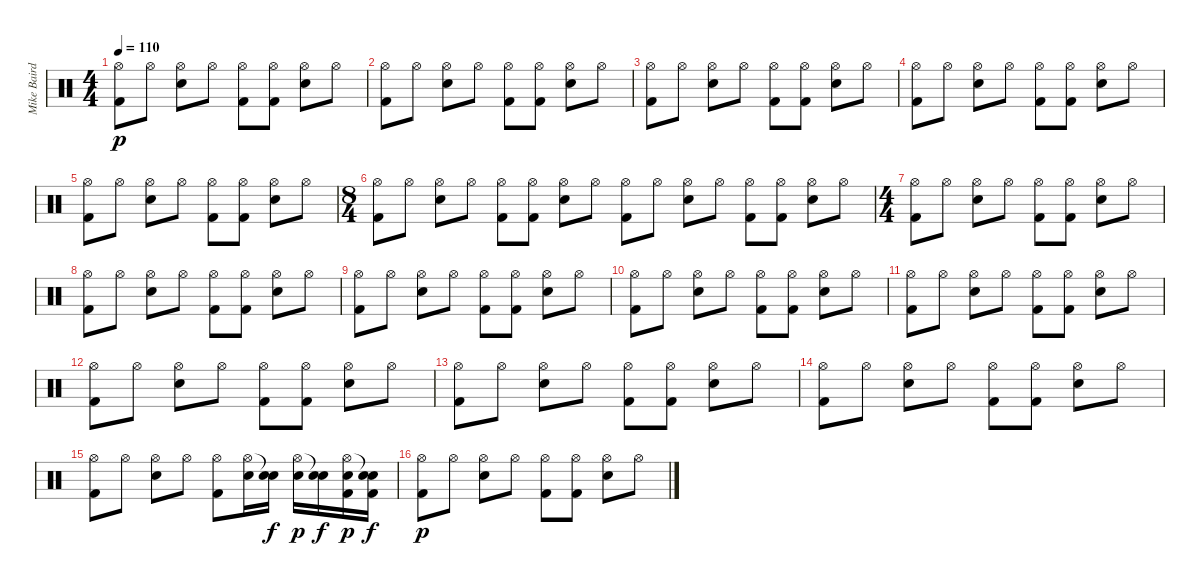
\track ("Mike Baird [drums]" "Mike Baird") {instrument percussion}
\staff {score}
\articulation defaults
\ts (4 4)
\tempo 110
\clef neutral
\ks c
("Hi-Hat (open)" "Kick (hit) 2").8{dy p} "Hi-Hat (open)".8 ("Hi-Hat (open)" "Electric Snare (hit)").8 "Hi-Hat (open)".8 ("Hi-Hat (open)" "Kick (hit) 2").8 ("Hi-Hat (open)" "Kick (hit) 2").8 ("Hi-Hat (open)" "Electric Snare (hit)").8 "Hi-Hat (open)".8 |
("Hi-Hat (open)" "Kick (hit) 2").8 "Hi-Hat (open)".8 ("Hi-Hat (open)" "Electric Snare (hit)").8 "Hi-Hat (open)".8 ("Hi-Hat (open)" "Kick (hit) 2").8 ("Hi-Hat (open)" "Kick (hit) 2").8 ("Hi-Hat (open)" "Electric Snare (hit)").8 "Hi-Hat (open)".8 |
("Hi-Hat (open)" "Kick (hit) 2").8 "Hi-Hat (open)".8 ("Hi-Hat (open)" "Electric Snare (hit)").8 "Hi-Hat (open)".8 ("Hi-Hat (open)" "Kick (hit) 2").8 ("Hi-Hat (open)" "Kick (hit) 2").8 ("Hi-Hat (open)" "Electric Snare (hit)").8 "Hi-Hat (open)".8 |
("Hi-Hat (open)" "Kick (hit) 2").8 "Hi-Hat (open)".8 ("Hi-Hat (open)" "Electric Snare (hit)").8 "Hi-Hat (open)".8 ("Hi-Hat (open)" "Kick (hit) 2").8 ("Hi-Hat (open)" "Kick (hit) 2").8 ("Hi-Hat (open)" "Electric Snare (hit)").8 "Hi-Hat (open)".8 |
("Hi-Hat (open)" "Kick (hit) 2").8 "Hi-Hat (open)".8 ("Hi-Hat (open)" "Electric Snare (hit)").8 "Hi-Hat (open)".8 ("Hi-Hat (open)" "Kick (hit) 2").8 ("Hi-Hat (open)" "Kick (hit) 2").8 ("Hi-Hat (open)" "Electric Snare (hit)").8 "Hi-Hat (open)".8 |
\ts (8 4)
("Hi-Hat (open)" "Kick (hit) 2").8 "Hi-Hat (open)".8 ("Hi-Hat (open)" "Electric Snare (hit)").8 "Hi-Hat (open)".8 ("Hi-Hat (open)" "Kick (hit) 2").8 ("Hi-Hat (open)" "Kick (hit) 2").8 ("Hi-Hat (open)" "Electric Snare (hit)").8 "Hi-Hat (open)".8 ("Hi-Hat (open)" "Kick (hit) 2").8 "Hi-Hat (open)".8 ("Hi-Hat (open)" "Electric Snare (hit)").8 "Hi-Hat (open)".8 ("Hi-Hat (open)" "Kick (hit) 2").8 ("Hi-Hat (open)" "Kick (hit) 2").8 ("Hi-Hat (open)" "Electric Snare (hit)").8 "Hi-Hat (open)".8 |
\ts (4 4)
("Hi-Hat (open)" "Kick (hit) 2").8 "Hi-Hat (open)".8 ("Hi-Hat (open)" "Electric Snare (hit)").8 "Hi-Hat (open)".8 ("Hi-Hat (open)" "Kick (hit) 2").8 ("Hi-Hat (open)" "Kick (hit) 2").8 ("Hi-Hat (open)" "Electric Snare (hit)").8 "Hi-Hat (open)".8 |
("Hi-Hat (open)" "Kick (hit) 2").8 "Hi-Hat (open)".8 ("Hi-Hat (open)" "Electric Snare (hit)").8 "Hi-Hat (open)".8 ("Hi-Hat (open)" "Kick (hit) 2").8 ("Hi-Hat (open)" "Kick (hit) 2").8 ("Hi-Hat (open)" "Electric Snare (hit)").8 "Hi-Hat (open)".8 |
("Hi-Hat (open)" "Kick (hit) 2").8 "Hi-Hat (open)".8 ("Hi-Hat (open)" "Electric Snare (hit)").8 "Hi-Hat (open)".8 ("Hi-Hat (open)" "Kick (hit) 2").8 ("Hi-Hat (open)" "Kick (hit) 2").8 ("Hi-Hat (open)" "Electric Snare (hit)").8 "Hi-Hat (open)".8 |
("Hi-Hat (open)" "Kick (hit) 2").8 "Hi-Hat (open)".8 ("Hi-Hat (open)" "Electric Snare (hit)").8 "Hi-Hat (open)".8 ("Hi-Hat (open)" "Kick (hit) 2").8 ("Hi-Hat (open)" "Kick (hit) 2").8 ("Hi-Hat (open)" "Electric Snare (hit)").8 "Hi-Hat (open)".8 |
("Hi-Hat (open)" "Kick (hit) 2").8 "Hi-Hat (open)".8 ("Hi-Hat (open)" "Electric Snare (hit)").8 "Hi-Hat (open)".8 ("Hi-Hat (open)" "Kick (hit) 2").8 ("Hi-Hat (open)" "Kick (hit) 2").8 ("Hi-Hat (open)" "Electric Snare (hit)").8 "Hi-Hat (open)".8 |
("Hi-Hat (open)" "Kick (hit) 2").8 "Hi-Hat (open)".8 ("Hi-Hat (open)" "Electric Snare (hit)").8 "Hi-Hat (open)".8 ("Hi-Hat (open)" "Kick (hit) 2").8 ("Hi-Hat (open)" "Kick (hit) 2").8 ("Hi-Hat (open)" "Electric Snare (hit)").8 "Hi-Hat (open)".8 |
("Hi-Hat (open)" "Kick (hit) 2").8 "Hi-Hat (open)".8 ("Hi-Hat (open)" "Electric Snare (hit)").8 "Hi-Hat (open)".8 ("Hi-Hat (open)" "Kick (hit) 2").8 ("Hi-Hat (open)" "Kick (hit) 2").8 ("Hi-Hat (open)" "Electric Snare (hit)").8 "Hi-Hat (open)".8 |
("Hi-Hat (open)" "Kick (hit) 2").8 "Hi-Hat (open)".8 ("Hi-Hat (open)" "Electric Snare (hit)").8 "Hi-Hat (open)".8 ("Hi-Hat (open)" "Kick (hit) 2").8 ("Hi-Hat (open)" "Kick (hit) 2").8 ("Hi-Hat (open)" "Electric Snare (hit)").8 "Hi-Hat (open)".8 |
("Hi-Hat (open)" "Kick (hit) 2").8 "Hi-Hat (open)".8 ("Hi-Hat (open)" "Electric Snare (hit)").8 "Hi-Hat (open)".8 ("Hi-Hat (open)" "Kick (hit) 2").8 ("Hi-Hat (open)" "Electric Snare (hit)").16 ("Snare (hit)"{t} "Electric Snare (hit)").16{dy f} ("Hi-Hat (open)" "Electric Snare (hit)").16{dy p} ("Snare (hit)"{t} "Electric Snare (hit)").16{dy f} ("Hi-Hat (open)" "Electric Snare (hit)" "Kick (hit) 2").16{dy p} ("Snare (hit)"{t} "Electric Snare (hit)" "Kick (hit) 2").16{dy f} |
("Hi-Hat (open)" "Kick (hit) 2").8{dy p} "Hi-Hat (open)".8 ("Hi-Hat (open)" "Electric Snare (hit)").8 "Hi-Hat (open)".8 ("Hi-Hat (open)" "Kick (hit) 2").8 ("Hi-Hat (open)" "Kick (hit) 2").8 ("Hi-Hat (open)" "Electric Snare (hit)").8 "Hi-Hat (open)".8
